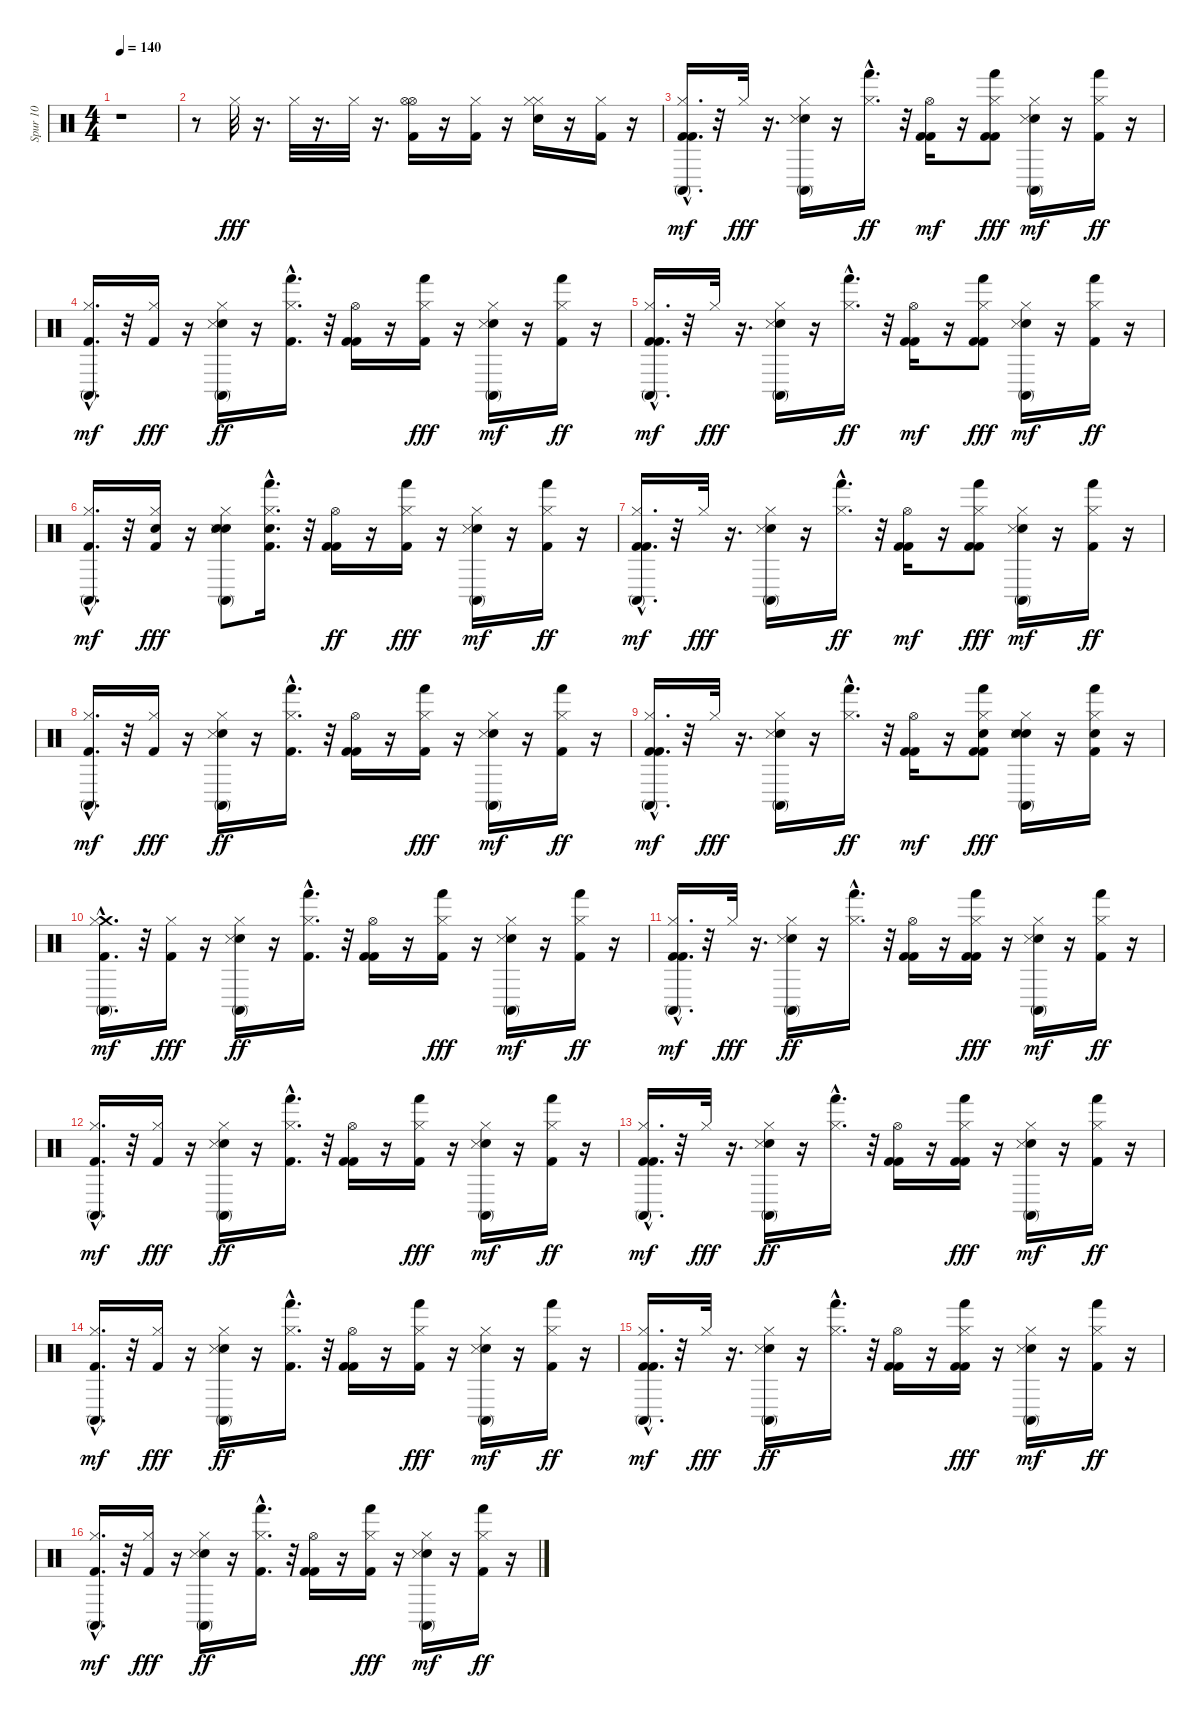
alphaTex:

\track ("Spur 10" "Spur 10") {instrument percussion}
\staff {score}
\articulation defaults
\ts (4 4)
\tempo 140
\clef neutral
\ks c
r.1{dy fff} |
r.8 "Hi-Hat (closed)".32 r.16{d} "Hi-Hat (closed)".32 r.16{d} "Hi-Hat (closed)".32 r.16{d} ("Kick (hit) 2" "Hi-Hat (open)" "Hi-Hat (open)").16 r.16 ("Kick (hit) 2" "Hi-Hat (closed)").16 r.16 ("Electric Snare (hit)" "Hi-Hat (closed)" "Hi-Hat (closed)").16 r.16 ("Kick (hit) 2" "Hi-Hat (closed)").16 r.16 |
("Hi-Hat (closed)" "Kick (hit) 2" "Kick (hit) 2" "Conga high (mute)"{hac}).16{d dy mf} r.32 "Hi-Hat (closed)".32{dy fff} r.16{d} ("Hi-Hat (closed)" "Electric Snare (hit)" "Snare (side stick) 3" "Conga high (mute)").16 r.16 ("Hi-Hat (closed)" "Hand (hit)"{hac}).16{d dy ff} r.32 ("Hi-Hat (open)" "Kick (hit) 2" "Kick (hit) 2").16{dy mf} r.16 ("Hi-Hat (closed)" "Kick (hit) 2" "Kick (hit) 2" "Hand (hit)").8{dy fff} ("Hi-Hat (closed)" "Electric Snare (hit)" "Snare (side stick) 3" "Conga high (mute)").16{dy mf} r.16 ("Hi-Hat (closed)" "Kick (hit) 2" "Hand (hit)").16{dy ff} r.16 |
("Hi-Hat (closed)" "Kick (hit) 2" "Conga high (mute)"{hac}).16{d dy mf} r.32 ("Hi-Hat (closed)" "Kick (hit) 2").16{dy fff} r.16 ("Hi-Hat (closed)" "Electric Snare (hit)" "Snare (side stick) 3" "Conga high (mute)").16{dy ff} r.16 ("Hi-Hat (closed)" "Kick (hit) 2" "Hand (hit)"{hac}).16{d} r.32 ("Hi-Hat (open)" "Kick (hit) 2" "Kick (hit) 2").16 r.16 ("Hi-Hat (closed)" "Kick (hit) 2" "Hand (hit)").16{dy fff} r.16 ("Hi-Hat (closed)" "Electric Snare (hit)" "Snare (side stick) 3" "Conga high (mute)").16{dy mf} r.16 ("Hi-Hat (closed)" "Kick (hit) 2" "Hand (hit)").16{dy ff} r.16 |
("Hi-Hat (closed)" "Kick (hit) 2" "Kick (hit) 2" "Conga high (mute)"{hac}).16{d dy mf} r.32 "Hi-Hat (closed)".32{dy fff} r.16{d} ("Hi-Hat (closed)" "Electric Snare (hit)" "Snare (side stick) 3" "Conga high (mute)").16 r.16 ("Hi-Hat (closed)" "Hand (hit)"{hac}).16{d dy ff} r.32 ("Hi-Hat (open)" "Kick (hit) 2" "Kick (hit) 2").16{dy mf} r.16 ("Hi-Hat (closed)" "Kick (hit) 2" "Kick (hit) 2" "Hand (hit)").8{dy fff} ("Hi-Hat (closed)" "Electric Snare (hit)" "Snare (side stick) 3" "Conga high (mute)").16{dy mf} r.16 ("Hi-Hat (closed)" "Kick (hit) 2" "Hand (hit)").16{dy ff} r.16 |
("Hi-Hat (closed)" "Kick (hit) 2" "Conga high (mute)"{hac}).16{d dy mf} r.32 ("Hi-Hat (closed)" "Kick (hit) 2" "Electric Snare (hit)").16{dy fff} r.16 ("Hi-Hat (closed)" "Electric Snare (hit)" "Snare (side stick) 3" "Conga high (mute)" "Electric Snare (hit)").8 ("Hi-Hat (closed)" "Kick (hit) 2" "Hand (hit)"{hac} "Electric Snare (hit)").16{d} r.32 ("Hi-Hat (open)" "Kick (hit) 2" "Kick (hit) 2").16{dy ff} r.16 ("Hi-Hat (closed)" "Kick (hit) 2" "Hand (hit)").16{dy fff} r.16 ("Hi-Hat (closed)" "Electric Snare (hit)" "Snare (side stick) 3" "Conga high (mute)").16{dy mf} r.16 ("Hi-Hat (closed)" "Kick (hit) 2" "Hand (hit)").16{dy ff} r.16 |
("Hi-Hat (closed)" "Kick (hit) 2" "Kick (hit) 2" "Conga high (mute)"{hac}).16{d dy mf} r.32 "Hi-Hat (closed)".32{dy fff} r.16{d} ("Hi-Hat (closed)" "Electric Snare (hit)" "Snare (side stick) 3" "Conga high (mute)").16 r.16 ("Hi-Hat (closed)" "Hand (hit)"{hac}).16{d dy ff} r.32 ("Hi-Hat (open)" "Kick (hit) 2" "Kick (hit) 2").16{dy mf} r.16 ("Hi-Hat (closed)" "Kick (hit) 2" "Kick (hit) 2" "Hand (hit)").8{dy fff} ("Hi-Hat (closed)" "Electric Snare (hit)" "Snare (side stick) 3" "Conga high (mute)").16{dy mf} r.16 ("Hi-Hat (closed)" "Kick (hit) 2" "Hand (hit)").16{dy ff} r.16 |
("Hi-Hat (closed)" "Kick (hit) 2" "Conga high (mute)"{hac}).16{d dy mf} r.32 ("Hi-Hat (closed)" "Kick (hit) 2").16{dy fff} r.16 ("Hi-Hat (closed)" "Electric Snare (hit)" "Snare (side stick) 3" "Conga high (mute)").16{dy ff} r.16 ("Hi-Hat (closed)" "Kick (hit) 2" "Hand (hit)"{hac}).16{d} r.32 ("Hi-Hat (open)" "Kick (hit) 2" "Kick (hit) 2").16 r.16 ("Hi-Hat (closed)" "Kick (hit) 2" "Hand (hit)").16{dy fff} r.16 ("Hi-Hat (closed)" "Electric Snare (hit)" "Snare (side stick) 3" "Conga high (mute)").16{dy mf} r.16 ("Hi-Hat (closed)" "Kick (hit) 2" "Hand (hit)").16{dy ff} r.16 |
("Hi-Hat (closed)" "Kick (hit) 2" "Kick (hit) 2" "Conga high (mute)"{hac}).16{d dy mf} r.32 "Hi-Hat (closed)".32{dy fff} r.16{d} ("Hi-Hat (closed)" "Electric Snare (hit)" "Snare (side stick) 3" "Conga high (mute)").16 r.16 ("Hi-Hat (closed)" "Hand (hit)"{hac}).16{d dy ff} r.32 ("Hi-Hat (open)" "Kick (hit) 2" "Kick (hit) 2").16{dy mf} r.16 ("Hi-Hat (closed)" "Kick (hit) 2" "Kick (hit) 2" "Hand (hit)" "Electric Snare (hit)").8{dy fff} ("Hi-Hat (closed)" "Electric Snare (hit)" "Snare (side stick) 3" "Conga high (mute)" "Electric Snare (hit)").16 r.16 ("Hi-Hat (closed)" "Kick (hit) 2" "Hand (hit)" "Electric Snare (hit)").16 r.16 |
("Crash medium (hit)" "Hi-Hat (closed)" "Kick (hit) 2" "Conga high (mute)"{hac}).16{d dy mf} r.32 ("Kick (hit) 2" "Hi-Hat (closed)").16{dy fff} r.16 ("Electric Snare (hit)" "Hi-Hat (closed)" "Snare (side stick) 3" "Conga high (mute)").16{dy ff} r.16 ("Kick (hit) 2" "Hi-Hat (closed)" "Hand (hit)"{hac}).16{d} r.32 ("Kick (hit) 2" "Hi-Hat (open)" "Kick (hit) 2").16 r.16 ("Hi-Hat (closed)" "Kick (hit) 2" "Hand (hit)").16{dy fff} r.16 ("Electric Snare (hit)" "Hi-Hat (closed)" "Snare (side stick) 3" "Conga high (mute)").16{dy mf} r.16 ("Kick (hit) 2" "Hi-Hat (closed)" "Hand (hit)").16{dy ff} r.16 |
("Kick (hit) 2" "Hi-Hat (closed)" "Kick (hit) 2" "Conga high (mute)"{hac}).16{d dy mf} r.32 "Hi-Hat (closed)".32{dy fff} r.16{d} ("Electric Snare (hit)" "Hi-Hat (closed)" "Snare (side stick) 3" "Conga high (mute)").16{dy ff} r.16 ("Hi-Hat (closed)" "Hand (hit)"{hac}).16{d} r.32 ("Kick (hit) 2" "Hi-Hat (open)" "Kick (hit) 2").16 r.16 ("Kick (hit) 2" "Hi-Hat (closed)" "Kick (hit) 2" "Hand (hit)").16{dy fff} r.16 ("Electric Snare (hit)" "Hi-Hat (closed)" "Snare (side stick) 3" "Conga high (mute)").16{dy mf} r.16 ("Kick (hit) 2" "Hi-Hat (closed)" "Hand (hit)").16{dy ff} r.16 |
("Hi-Hat (closed)" "Kick (hit) 2" "Conga high (mute)"{hac}).16{d dy mf} r.32 ("Kick (hit) 2" "Hi-Hat (closed)").16{dy fff} r.16 ("Electric Snare (hit)" "Hi-Hat (closed)" "Snare (side stick) 3" "Conga high (mute)").16{dy ff} r.16 ("Kick (hit) 2" "Hi-Hat (closed)" "Hand (hit)"{hac}).16{d} r.32 ("Kick (hit) 2" "Hi-Hat (open)" "Kick (hit) 2").16 r.16 ("Hi-Hat (closed)" "Kick (hit) 2" "Hand (hit)").16{dy fff} r.16 ("Electric Snare (hit)" "Hi-Hat (closed)" "Snare (side stick) 3" "Conga high (mute)").16{dy mf} r.16 ("Kick (hit) 2" "Hi-Hat (closed)" "Hand (hit)").16{dy ff} r.16 |
("Kick (hit) 2" "Hi-Hat (closed)" "Kick (hit) 2" "Conga high (mute)"{hac}).16{d dy mf} r.32 "Hi-Hat (closed)".32{dy fff} r.16{d} ("Electric Snare (hit)" "Hi-Hat (closed)" "Snare (side stick) 3" "Conga high (mute)").16{dy ff} r.16 ("Hi-Hat (closed)" "Hand (hit)"{hac}).16{d} r.32 ("Kick (hit) 2" "Hi-Hat (open)" "Kick (hit) 2").16 r.16 ("Kick (hit) 2" "Hi-Hat (closed)" "Kick (hit) 2" "Hand (hit)").16{dy fff} r.16 ("Electric Snare (hit)" "Hi-Hat (closed)" "Snare (side stick) 3" "Conga high (mute)").16{dy mf} r.16 ("Kick (hit) 2" "Hi-Hat (closed)" "Hand (hit)").16{dy ff} r.16 |
("Hi-Hat (closed)" "Kick (hit) 2" "Conga high (mute)"{hac}).16{d dy mf} r.32 ("Kick (hit) 2" "Hi-Hat (closed)").16{dy fff} r.16 ("Electric Snare (hit)" "Hi-Hat (closed)" "Snare (side stick) 3" "Conga high (mute)").16{dy ff} r.16 ("Kick (hit) 2" "Hi-Hat (closed)" "Hand (hit)"{hac}).16{d} r.32 ("Kick (hit) 2" "Hi-Hat (open)" "Kick (hit) 2").16 r.16 ("Hi-Hat (closed)" "Kick (hit) 2" "Hand (hit)").16{dy fff} r.16 ("Electric Snare (hit)" "Hi-Hat (closed)" "Snare (side stick) 3" "Conga high (mute)").16{dy mf} r.16 ("Kick (hit) 2" "Hi-Hat (closed)" "Hand (hit)").16{dy ff} r.16 |
("Kick (hit) 2" "Hi-Hat (closed)" "Kick (hit) 2" "Conga high (mute)"{hac}).16{d dy mf} r.32 "Hi-Hat (closed)".32{dy fff} r.16{d} ("Electric Snare (hit)" "Hi-Hat (closed)" "Snare (side stick) 3" "Conga high (mute)").16{dy ff} r.16 ("Hi-Hat (closed)" "Hand (hit)"{hac}).16{d} r.32 ("Kick (hit) 2" "Hi-Hat (open)" "Kick (hit) 2").16 r.16 ("Kick (hit) 2" "Hi-Hat (closed)" "Kick (hit) 2" "Hand (hit)").16{dy fff} r.16 ("Electric Snare (hit)" "Hi-Hat (closed)" "Snare (side stick) 3" "Conga high (mute)").16{dy mf} r.16 ("Kick (hit) 2" "Hi-Hat (closed)" "Hand (hit)").16{dy ff} r.16 |
("Hi-Hat (closed)" "Kick (hit) 2" "Conga high (mute)"{hac}).16{d dy mf} r.32 ("Kick (hit) 2" "Hi-Hat (closed)").16{dy fff} r.16 ("Electric Snare (hit)" "Hi-Hat (closed)" "Snare (side stick) 3" "Conga high (mute)").16{dy ff} r.16 ("Kick (hit) 2" "Hi-Hat (closed)" "Hand (hit)"{hac}).16{d} r.32 ("Kick (hit) 2" "Hi-Hat (open)" "Kick (hit) 2").16 r.16 ("Hi-Hat (closed)" "Kick (hit) 2" "Hand (hit)").16{dy fff} r.16 ("Electric Snare (hit)" "Hi-Hat (closed)" "Snare (side stick) 3" "Conga high (mute)").16{dy mf} r.16 ("Kick (hit) 2" "Hi-Hat (closed)" "Hand (hit)").16{dy ff} r.16
